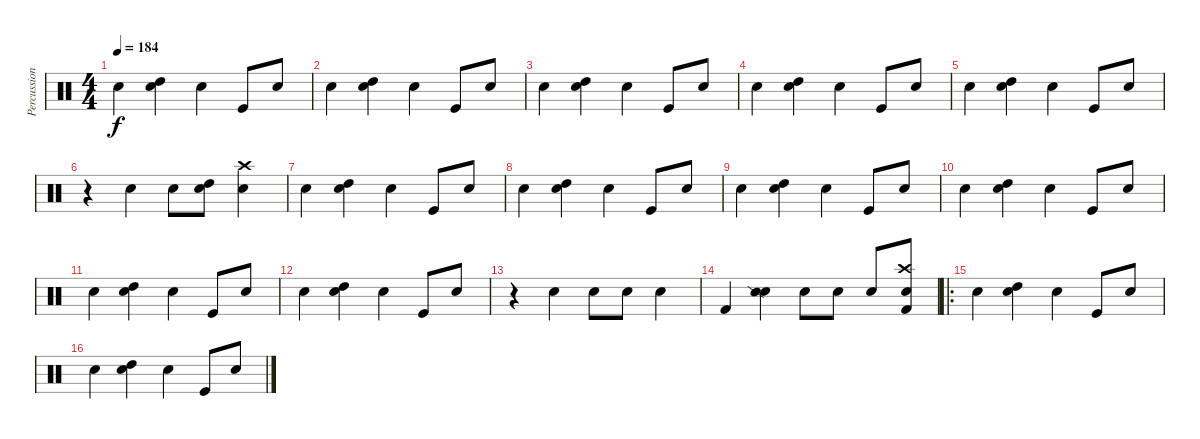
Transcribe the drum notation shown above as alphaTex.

\track ("Percussions" "Percussion") {instrument percussion}
\staff {score}
\articulation defaults
\ts (4 4)
\tempo 184
\clef neutral
\ks c "Metronome (bell)".4{dy f}
("Metronome (bell)" "High Tom (hit)").4 "Metronome (bell)".4 "Kick (hit)".8 "Metronome (bell)".8 |
"Metronome (bell)".4 ("Metronome (bell)" "High Tom (hit)").4 "Metronome (bell)".4 "Kick (hit)".8 "Metronome (bell)".8 |
"Metronome (bell)".4 ("Metronome (bell)" "High Tom (hit)").4 "Metronome (bell)".4 "Kick (hit)".8 "Metronome (bell)".8 |
"Metronome (bell)".4 ("Metronome (bell)" "High Tom (hit)").4 "Metronome (bell)".4 "Kick (hit)".8 "Metronome (bell)".8 |
"Metronome (bell)".4 ("Metronome (bell)" "High Tom (hit)").4 "Metronome (bell)".4 "Kick (hit)".8 "Metronome (bell)".8 |
r.4 "Metronome (bell)".4 "Metronome (bell)".8 ("Metronome (bell)" "High Tom (hit)").8 ("Metronome (bell)" "Crash high (hit)").4 |
"Metronome (bell)".4 ("Metronome (bell)" "High Tom (hit)").4 "Metronome (bell)".4 "Kick (hit)".8 "Metronome (bell)".8 |
"Metronome (bell)".4 ("Metronome (bell)" "High Tom (hit)").4 "Metronome (bell)".4 "Kick (hit)".8 "Metronome (bell)".8 |
"Metronome (bell)".4 ("Metronome (bell)" "High Tom (hit)").4 "Metronome (bell)".4 "Kick (hit)".8 "Metronome (bell)".8 |
"Metronome (bell)".4 ("Metronome (bell)" "High Tom (hit)").4 "Metronome (bell)".4 "Kick (hit)".8 "Metronome (bell)".8 |
"Metronome (bell)".4 ("Metronome (bell)" "High Tom (hit)").4 "Metronome (bell)".4 "Kick (hit)".8 "Metronome (bell)".8 |
"Metronome (bell)".4 ("Metronome (bell)" "High Tom (hit)").4 "Metronome (bell)".4 "Kick (hit)".8 "Metronome (bell)".8 |
r.4 "Metronome (bell)".4 "Metronome (bell)".8 "Metronome (bell)".8 "Metronome (bell)".4 |
"Kick (hit) 2".4 ("Metronome (bell)" "Snare (side stick) 2").4 "Metronome (bell)".8 "Metronome (bell)".8 "Metronome (bell)".8 ("Kick (hit) 2" "Metronome (bell)" "Crash high (hit)").8 |
\ro "Metronome (bell)".4
("Metronome (bell)" "High Tom (hit)").4 "Metronome (bell)".4 "Kick (hit)".8 "Metronome (bell)".8 |
"Metronome (bell)".4 ("Metronome (bell)" "High Tom (hit)").4 "Metronome (bell)".4 "Kick (hit)".8 "Metronome (bell)".8
